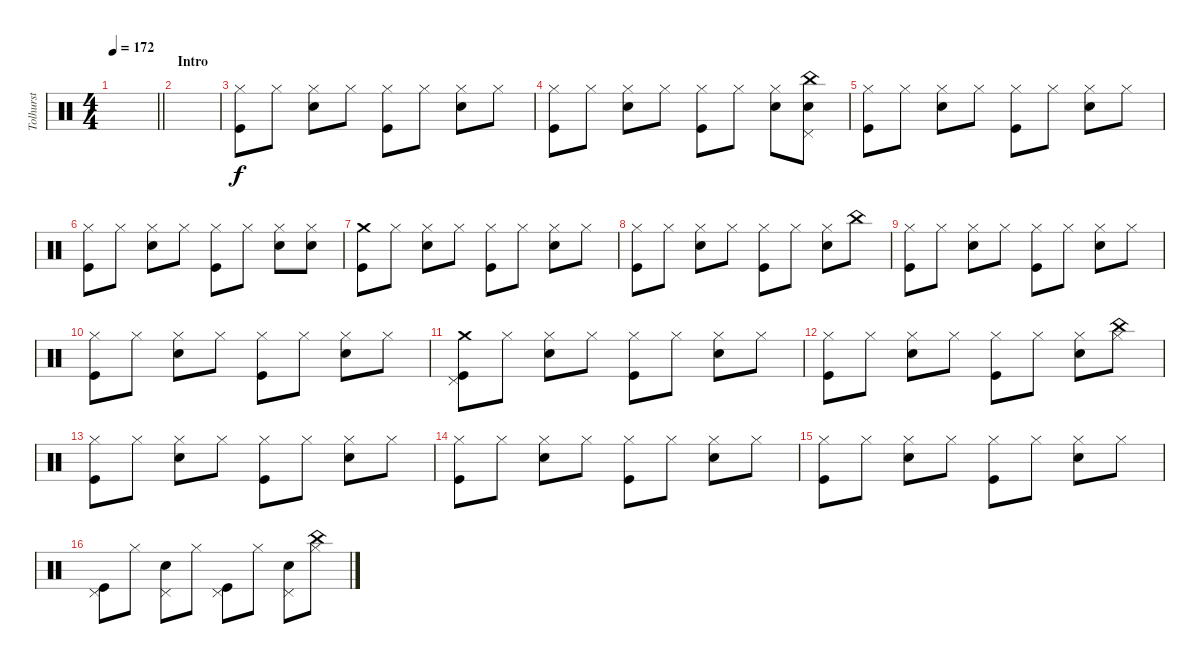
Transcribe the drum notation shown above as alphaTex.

\track ("Tolhurst" "Tolhurst") {instrument percussion}
\staff {score}
\articulation defaults
\ts (4 4)
\tempo 172
\clef neutral
\barLineRight lightlight
\ks c
|
\section ("" "Intro")
|
("Hi-Hat (closed)" "Kick (hit)").8 "Hi-Hat (closed)".8 ("Hi-Hat (closed)" "Snare (hit) 2").8 "Hi-Hat (closed)".8 ("Hi-Hat (closed)" "Kick (hit)").8 "Hi-Hat (closed)".8 ("Hi-Hat (closed)" "Snare (hit) 2").8 "Hi-Hat (closed)".8 |
("Hi-Hat (closed)" "Kick (hit)").8 "Hi-Hat (closed)".8 ("Hi-Hat (closed)" "Snare (hit) 2").8 "Hi-Hat (closed)".8 ("Hi-Hat (closed)" "Kick (hit)").8 "Hi-Hat (closed)".8 ("Hi-Hat (closed)" "Snare (hit) 2").8 ("China (hit)" "Pedal Hi-Hat (hit)" "Snare (hit) 2").8 |
("Hi-Hat (closed)" "Kick (hit)").8 "Hi-Hat (closed)".8 ("Hi-Hat (closed)" "Snare (hit) 2").8 "Hi-Hat (closed)".8 ("Hi-Hat (closed)" "Kick (hit)").8 "Hi-Hat (closed)".8 ("Hi-Hat (closed)" "Snare (hit) 2").8 "Hi-Hat (closed)".8 |
("Hi-Hat (closed)" "Kick (hit)").8 "Hi-Hat (closed)".8 ("Hi-Hat (closed)" "Snare (hit) 2").8 "Hi-Hat (closed)".8 ("Hi-Hat (closed)" "Kick (hit)").8 "Hi-Hat (closed)".8 ("Hi-Hat (closed)" "Snare (hit) 2").8 ("Hi-Hat (closed)" "Snare (hit) 2").8 |
("Crash medium (hit)" "Kick (hit)").8 "Hi-Hat (closed)".8 ("Hi-Hat (closed)" "Snare (hit) 2").8 "Hi-Hat (closed)".8 ("Hi-Hat (closed)" "Kick (hit)").8 "Hi-Hat (closed)".8 ("Hi-Hat (closed)" "Snare (hit) 2").8 "Hi-Hat (closed)".8 |
("Hi-Hat (closed)" "Kick (hit)").8 "Hi-Hat (closed)".8 ("Hi-Hat (closed)" "Snare (hit) 2").8 "Hi-Hat (closed)".8 ("Hi-Hat (closed)" "Kick (hit)").8 "Hi-Hat (closed)".8 ("Hi-Hat (closed)" "Snare (hit) 2").8 "China (hit)".8 |
("Hi-Hat (closed)" "Kick (hit)").8 "Hi-Hat (closed)".8 ("Hi-Hat (closed)" "Snare (hit) 2").8 "Hi-Hat (closed)".8 ("Hi-Hat (closed)" "Kick (hit)").8 "Hi-Hat (closed)".8 ("Hi-Hat (closed)" "Snare (hit) 2").8 "Hi-Hat (closed)".8 |
("Hi-Hat (closed)" "Kick (hit)").8 "Hi-Hat (closed)".8 ("Hi-Hat (closed)" "Snare (hit) 2").8 "Hi-Hat (closed)".8 ("Hi-Hat (closed)" "Kick (hit)").8 "Hi-Hat (closed)".8 ("Hi-Hat (closed)" "Snare (hit) 2").8 "Hi-Hat (closed)".8 |
("Crash medium (hit)" "Pedal Hi-Hat (hit)" "Kick (hit)").8 "Hi-Hat (closed)".8 ("Hi-Hat (closed)" "Snare (hit) 2").8 "Hi-Hat (closed)".8 ("Hi-Hat (closed)" "Kick (hit)").8 "Hi-Hat (closed)".8 ("Hi-Hat (closed)" "Snare (hit) 2").8 "Hi-Hat (closed)".8 |
("Hi-Hat (closed)" "Kick (hit)").8 "Hi-Hat (closed)".8 ("Hi-Hat (closed)" "Snare (hit) 2").8 "Hi-Hat (closed)".8 ("Hi-Hat (closed)" "Kick (hit)").8 "Hi-Hat (closed)".8 ("Hi-Hat (closed)" "Snare (hit) 2").8 ("China (hit)" "Hi-Hat (closed)").8 |
("Hi-Hat (closed)" "Kick (hit)").8 "Hi-Hat (closed)".8 ("Hi-Hat (closed)" "Snare (hit) 2").8 "Hi-Hat (closed)".8 ("Hi-Hat (closed)" "Kick (hit)").8 "Hi-Hat (closed)".8 ("Hi-Hat (closed)" "Snare (hit) 2").8 "Hi-Hat (closed)".8 |
("Hi-Hat (closed)" "Kick (hit)").8 "Hi-Hat (closed)".8 ("Hi-Hat (closed)" "Snare (hit) 2").8 "Hi-Hat (closed)".8 ("Hi-Hat (closed)" "Kick (hit)").8 "Hi-Hat (closed)".8 ("Hi-Hat (closed)" "Snare (hit) 2").8 "Hi-Hat (closed)".8 |
("Hi-Hat (closed)" "Kick (hit)").8 "Hi-Hat (closed)".8 ("Hi-Hat (closed)" "Snare (hit) 2").8 "Hi-Hat (closed)".8 ("Hi-Hat (closed)" "Kick (hit)").8 "Hi-Hat (closed)".8 ("Hi-Hat (closed)" "Snare (hit) 2").8 "Hi-Hat (closed)".8 |
("Pedal Hi-Hat (hit)" "Kick (hit)").8 "Hi-Hat (closed)".8 ("Pedal Hi-Hat (hit)" "Snare (hit) 2").8 "Hi-Hat (closed)".8 ("Pedal Hi-Hat (hit)" "Kick (hit)").8 "Hi-Hat (closed)".8 ("Pedal Hi-Hat (hit)" "Snare (hit) 2").8 ("China (hit)" "Hi-Hat (closed)").8
